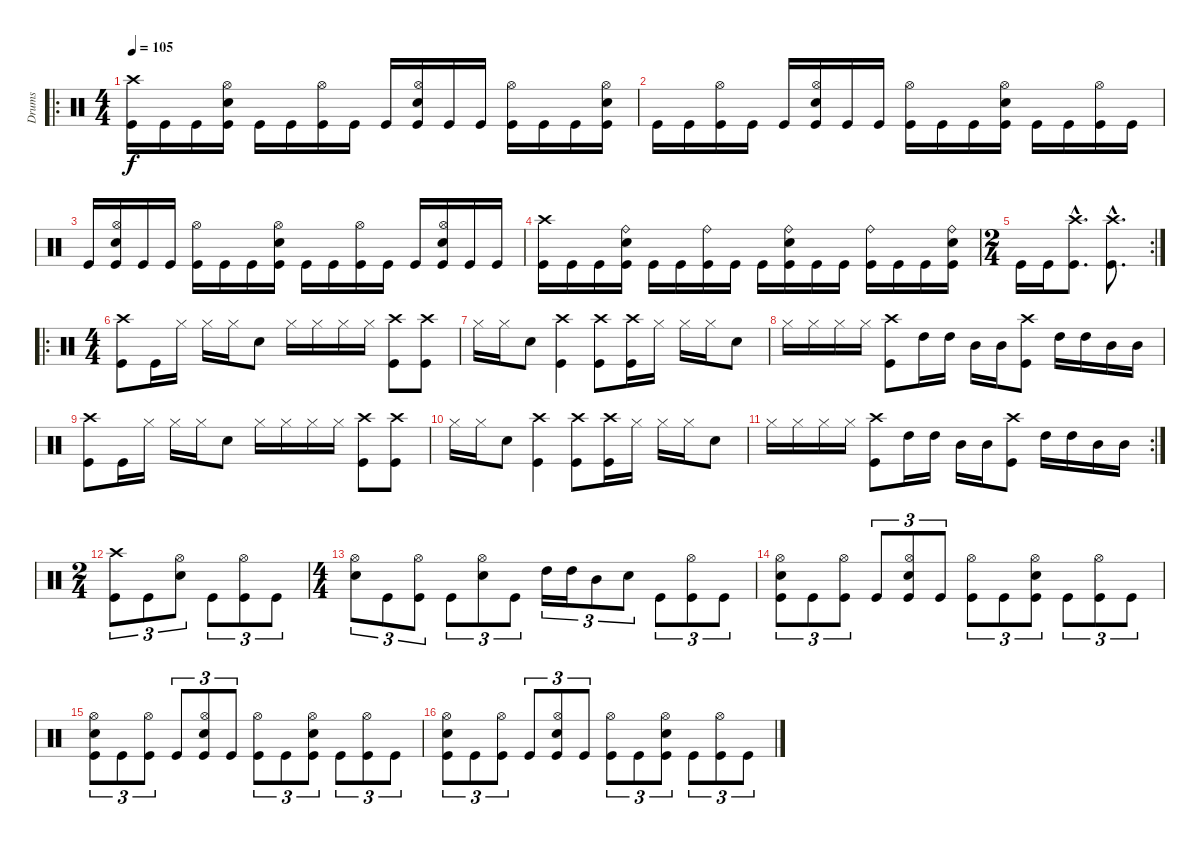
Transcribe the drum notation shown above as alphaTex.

\track ("Drums" "Drums") {instrument percussion}
\staff {score}
\articulation defaults
\ro
\ts (4 4)
\tempo 105
\clef neutral
\ks c
("Crash high (hit)" "Kick (hit)").16{dy f} "Kick (hit)".16 "Kick (hit)".16 ("Hi-Hat (open)" "Snare (hit) 2" "Kick (hit)").16 "Kick (hit)".16 "Kick (hit)".16 ("Hi-Hat (open)" "Kick (hit)").16 "Kick (hit)".16 "Kick (hit)".16 ("Hi-Hat (open)" "Snare (hit) 2" "Kick (hit)").16 "Kick (hit)".16 "Kick (hit)".16 ("Hi-Hat (open)" "Kick (hit)").16 "Kick (hit)".16 "Kick (hit)".16 ("Hi-Hat (open)" "Snare (hit) 2" "Kick (hit)").16 |
"Kick (hit)".16 "Kick (hit)".16 ("Hi-Hat (open)" "Kick (hit)").16 "Kick (hit)".16 "Kick (hit)".16 ("Hi-Hat (open)" "Snare (hit) 2" "Kick (hit)").16 "Kick (hit)".16 "Kick (hit)".16 ("Hi-Hat (open)" "Kick (hit)").16 "Kick (hit)".16 "Kick (hit)".16 ("Hi-Hat (open)" "Snare (hit) 2" "Kick (hit)").16 "Kick (hit)".16 "Kick (hit)".16 ("Hi-Hat (open)" "Kick (hit)").16 "Kick (hit)".16 |
"Kick (hit)".16 ("Hi-Hat (open)" "Snare (hit) 2" "Kick (hit)").16 "Kick (hit)".16 "Kick (hit)".16 ("Hi-Hat (open)" "Kick (hit)").16 "Kick (hit)".16 "Kick (hit)".16 ("Hi-Hat (open)" "Snare (hit) 2" "Kick (hit)").16 "Kick (hit)".16 "Kick (hit)".16 ("Hi-Hat (open)" "Kick (hit)").16 "Kick (hit)".16 "Kick (hit)".16 ("Hi-Hat (open)" "Snare (hit) 2" "Kick (hit)").16 "Kick (hit)".16 "Kick (hit)".16 |
("Crash high (hit)" "Kick (hit)").16 "Kick (hit)".16 "Kick (hit)".16 ("Ride (bell)" "Snare (hit) 2" "Kick (hit)").16 "Kick (hit)".16 "Kick (hit)".16 ("Ride (bell)" "Kick (hit)").16 "Kick (hit)".16 "Kick (hit)".16 ("Ride (bell)" "Snare (hit) 2" "Kick (hit)").16 "Kick (hit)".16 "Kick (hit)".16 ("Ride (bell)" "Kick (hit)").16 "Kick (hit)".16 "Kick (hit)".16 ("Ride (bell)" "Snare (hit) 2" "Kick (hit)").16 |
\rc 2
\ts (2 4)
"Kick (hit)".16 "Kick (hit)".16 ("Crash high (hit)"{hac} "Kick (hit)"{hac}).8{d} ("Crash high (hit)"{hac} "Kick (hit)"{hac}).8{d} |
\ro
\ts (4 4)
("Crash high (hit)" "Kick (hit)").8 "Kick (hit)".16 "Hi-Hat (closed)".16 "Hi-Hat (closed)".16 "Hi-Hat (closed)".16 "Snare (hit) 2".8 "Hi-Hat (closed)".16 "Hi-Hat (closed)".16 "Hi-Hat (closed)".16 "Hi-Hat (closed)".16 ("Crash high (hit)" "Kick (hit)").8 ("Crash high (hit)" "Kick (hit)").8 |
"Hi-Hat (closed)".16 "Hi-Hat (closed)".16 "Snare (hit) 2".8 ("Crash high (hit)" "Kick (hit)").4 ("Crash high (hit)" "Kick (hit)").8 ("Crash high (hit)" "Kick (hit)").16 "Hi-Hat (closed)".16 "Hi-Hat (closed)".16 "Hi-Hat (closed)".16 "Snare (hit) 2".8 |
"Hi-Hat (closed)".16 "Hi-Hat (closed)".16 "Hi-Hat (closed)".16 "Hi-Hat (closed)".16 ("Crash high (hit)" "Kick (hit)").8 "High Tom (hit)".16 "High Tom (hit)".16 "Mid Tom (hit)".16 "Mid Tom (hit)".16 ("Crash high (hit)" "Kick (hit)").8 "High Tom (hit)".16 "High Tom (hit)".16 "Mid Tom (hit)".16 "Mid Tom (hit)".16 |
("Crash high (hit)" "Kick (hit)").8 "Kick (hit)".16 "Hi-Hat (closed)".16 "Hi-Hat (closed)".16 "Hi-Hat (closed)".16 "Snare (hit) 2".8 "Hi-Hat (closed)".16 "Hi-Hat (closed)".16 "Hi-Hat (closed)".16 "Hi-Hat (closed)".16 ("Crash high (hit)" "Kick (hit)").8 ("Crash high (hit)" "Kick (hit)").8 |
"Hi-Hat (closed)".16 "Hi-Hat (closed)".16 "Snare (hit) 2".8 ("Crash high (hit)" "Kick (hit)").4 ("Crash high (hit)" "Kick (hit)").8 ("Crash high (hit)" "Kick (hit)").16 "Hi-Hat (closed)".16 "Hi-Hat (closed)".16 "Hi-Hat (closed)".16 "Snare (hit) 2".8 |
\rc 2 "Hi-Hat (closed)".16 "Hi-Hat (closed)".16 "Hi-Hat (closed)".16 "Hi-Hat (closed)".16
("Crash high (hit)" "Kick (hit)").8 "High Tom (hit)".16 "High Tom (hit)".16 "Mid Tom (hit)".16 "Mid Tom (hit)".16 ("Crash high (hit)" "Kick (hit)").8 "High Tom (hit)".16 "High Tom (hit)".16 "Mid Tom (hit)".16 "Mid Tom (hit)".16 |
\ts (2 4)
("Crash high (hit)" "Kick (hit)").8{tu (3 2)} "Kick (hit)".8{tu (3 2)} ("Hi-Hat (open)" "Snare (hit) 2").8{tu (3 2)} "Kick (hit)".8{tu (3 2)} ("Hi-Hat (open)" "Kick (hit)").8{tu (3 2)} "Kick (hit)".8{tu (3 2)} |
\ts (4 4)
("Hi-Hat (open)" "Snare (hit) 2").8{tu (3 2)} "Kick (hit)".8{tu (3 2)} ("Hi-Hat (open)" "Kick (hit)").8{tu (3 2)} "Kick (hit)".8{tu (3 2)} ("Hi-Hat (open)" "Snare (hit) 2").8{tu (3 2)} "Kick (hit)".8{tu (3 2)} "High Tom (hit)".16{tu (3 2)} "High Tom (hit)".16{tu (3 2)} "Mid Tom (hit)".8{tu (3 2)} "Snare (hit) 2".8{tu (3 2)} "Kick (hit)".8{tu (3 2)} ("Hi-Hat (open)" "Kick (hit)").8{tu (3 2)} "Kick (hit)".8{tu (3 2)} |
("Hi-Hat (open)" "Snare (hit) 2" "Kick (hit)").8{tu (3 2)} "Kick (hit)".8{tu (3 2)} ("Hi-Hat (open)" "Kick (hit)").8{tu (3 2)} "Kick (hit)".8{tu (3 2)} ("Hi-Hat (open)" "Snare (hit) 2" "Kick (hit)").8{tu (3 2)} "Kick (hit)".8{tu (3 2)} ("Hi-Hat (open)" "Kick (hit)").8{tu (3 2)} "Kick (hit)".8{tu (3 2)} ("Hi-Hat (open)" "Snare (hit) 2" "Kick (hit)").8{tu (3 2)} "Kick (hit)".8{tu (3 2)} ("Hi-Hat (open)" "Kick (hit)").8{tu (3 2)} "Kick (hit)".8{tu (3 2)} |
("Hi-Hat (open)" "Snare (hit) 2" "Kick (hit)").8{tu (3 2)} "Kick (hit)".8{tu (3 2)} ("Hi-Hat (open)" "Kick (hit)").8{tu (3 2)} "Kick (hit)".8{tu (3 2)} ("Hi-Hat (open)" "Snare (hit) 2" "Kick (hit)").8{tu (3 2)} "Kick (hit)".8{tu (3 2)} ("Hi-Hat (open)" "Kick (hit)").8{tu (3 2)} "Kick (hit)".8{tu (3 2)} ("Hi-Hat (open)" "Snare (hit) 2" "Kick (hit)").8{tu (3 2)} "Kick (hit)".8{tu (3 2)} ("Hi-Hat (open)" "Kick (hit)").8{tu (3 2)} "Kick (hit)".8{tu (3 2)} |
("Hi-Hat (open)" "Snare (hit) 2" "Kick (hit)").8{tu (3 2)} "Kick (hit)".8{tu (3 2)} ("Hi-Hat (open)" "Kick (hit)").8{tu (3 2)} "Kick (hit)".8{tu (3 2)} ("Hi-Hat (open)" "Snare (hit) 2" "Kick (hit)").8{tu (3 2)} "Kick (hit)".8{tu (3 2)} ("Hi-Hat (open)" "Kick (hit)").8{tu (3 2)} "Kick (hit)".8{tu (3 2)} ("Hi-Hat (open)" "Snare (hit) 2" "Kick (hit)").8{tu (3 2)} "Kick (hit)".8{tu (3 2)} ("Hi-Hat (open)" "Kick (hit)").8{tu (3 2)} "Kick (hit)".8{tu (3 2)}
